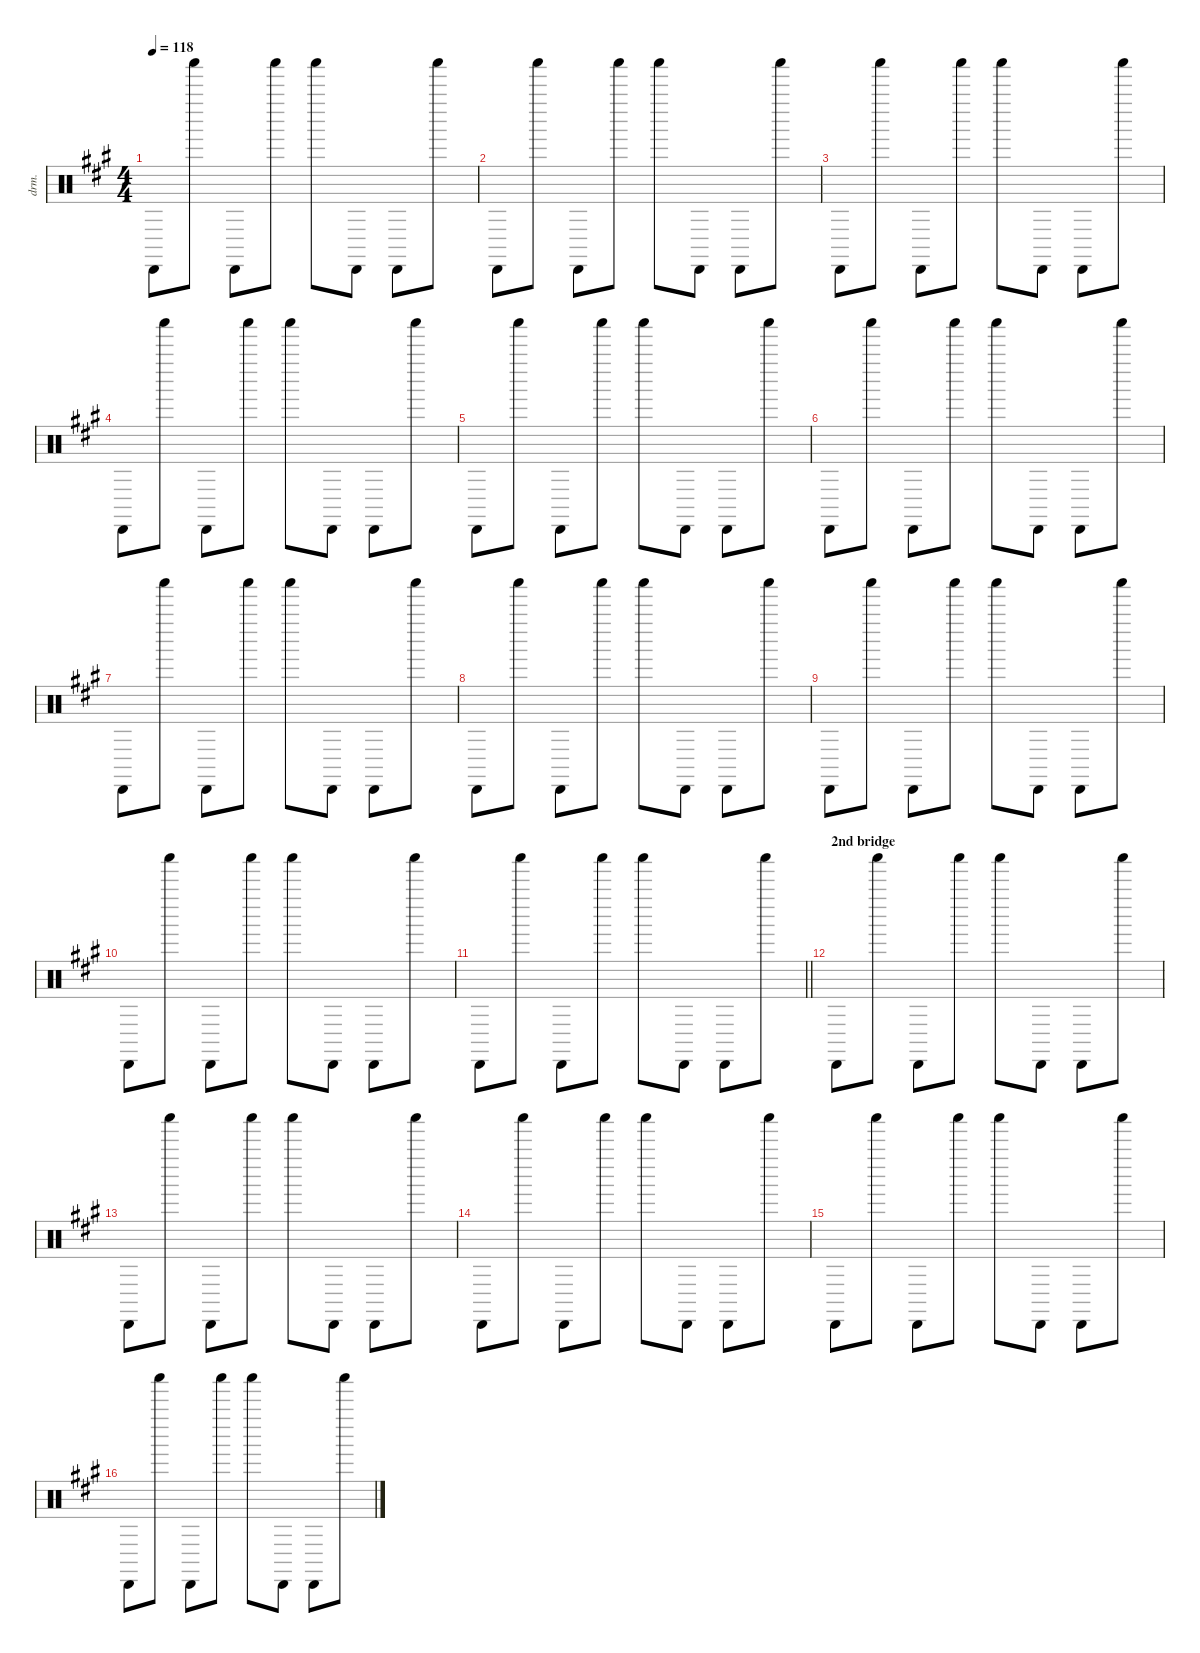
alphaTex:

\defaultSystemsLayout 4
\hideDynamics
\bracketExtendMode nobrackets
\otherSystemsTrackNameOrientation horizontal
\track ("shaker" "drm.") {instrument percussion}
\staff {score}
\articulation defaults
\ts (4 4)
\tempo 118
\clef neutral
\ks f#minor "Cabasa (hit)"{acc forcenatural}.8{dy f} "Shaker (hit)"{acc forcenatural}.8 "Cabasa (hit)"{acc forcenatural}.8{dy mp} "Shaker (hit)"{acc forcenatural}.8{dy f} "Shaker (hit)"{acc forcenatural}.8{dy p} "Cabasa (hit)"{acc forcenatural}.8{dy f} "Cabasa (hit)"{acc forcenatural}.8 "Shaker (hit)"{acc forcenatural}.8
|
"Cabasa (hit)"{acc forcenatural}.8 "Shaker (hit)"{acc forcenatural}.8 "Cabasa (hit)"{acc forcenatural}.8{dy mp} "Shaker (hit)"{acc forcenatural}.8{dy f} "Shaker (hit)"{acc forcenatural}.8{dy p} "Cabasa (hit)"{acc forcenatural}.8{dy f} "Cabasa (hit)"{acc forcenatural}.8 "Shaker (hit)"{acc forcenatural}.8 |
"Cabasa (hit)"{acc forcenatural}.8 "Shaker (hit)"{acc forcenatural}.8 "Cabasa (hit)"{acc forcenatural}.8{dy mp} "Shaker (hit)"{acc forcenatural}.8{dy f} "Shaker (hit)"{acc forcenatural}.8{dy p} "Cabasa (hit)"{acc forcenatural}.8{dy f} "Cabasa (hit)"{acc forcenatural}.8 "Shaker (hit)"{acc forcenatural}.8 |
"Cabasa (hit)"{acc forcenatural}.8 "Shaker (hit)"{acc forcenatural}.8 "Cabasa (hit)"{acc forcenatural}.8{dy mp} "Shaker (hit)"{acc forcenatural}.8{dy f} "Shaker (hit)"{acc forcenatural}.8{dy p} "Cabasa (hit)"{acc forcenatural}.8{dy f} "Cabasa (hit)"{acc forcenatural}.8 "Shaker (hit)"{acc forcenatural}.8 |
"Cabasa (hit)"{acc forcenatural}.8 "Shaker (hit)"{acc forcenatural}.8 "Cabasa (hit)"{acc forcenatural}.8{dy mp} "Shaker (hit)"{acc forcenatural}.8{dy f} "Shaker (hit)"{acc forcenatural}.8{dy p} "Cabasa (hit)"{acc forcenatural}.8{dy f} "Cabasa (hit)"{acc forcenatural}.8 "Shaker (hit)"{acc forcenatural}.8 |
"Cabasa (hit)"{acc forcenatural}.8 "Shaker (hit)"{acc forcenatural}.8 "Cabasa (hit)"{acc forcenatural}.8{dy mp} "Shaker (hit)"{acc forcenatural}.8{dy f} "Shaker (hit)"{acc forcenatural}.8{dy p} "Cabasa (hit)"{acc forcenatural}.8{dy f} "Cabasa (hit)"{acc forcenatural}.8 "Shaker (hit)"{acc forcenatural}.8 |
"Cabasa (hit)"{acc forcenatural}.8 "Shaker (hit)"{acc forcenatural}.8 "Cabasa (hit)"{acc forcenatural}.8{dy mp} "Shaker (hit)"{acc forcenatural}.8{dy f} "Shaker (hit)"{acc forcenatural}.8{dy p} "Cabasa (hit)"{acc forcenatural}.8{dy f} "Cabasa (hit)"{acc forcenatural}.8 "Shaker (hit)"{acc forcenatural}.8 |
"Cabasa (hit)"{acc forcenatural}.8 "Shaker (hit)"{acc forcenatural}.8 "Cabasa (hit)"{acc forcenatural}.8{dy mp} "Shaker (hit)"{acc forcenatural}.8{dy f} "Shaker (hit)"{acc forcenatural}.8{dy p} "Cabasa (hit)"{acc forcenatural}.8{dy f} "Cabasa (hit)"{acc forcenatural}.8 "Shaker (hit)"{acc forcenatural}.8 |
"Cabasa (hit)"{acc forcenatural}.8 "Shaker (hit)"{acc forcenatural}.8 "Cabasa (hit)"{acc forcenatural}.8{dy mp} "Shaker (hit)"{acc forcenatural}.8{dy f} "Shaker (hit)"{acc forcenatural}.8{dy p} "Cabasa (hit)"{acc forcenatural}.8{dy f} "Cabasa (hit)"{acc forcenatural}.8 "Shaker (hit)"{acc forcenatural}.8 |
"Cabasa (hit)"{acc forcenatural}.8 "Shaker (hit)"{acc forcenatural}.8 "Cabasa (hit)"{acc forcenatural}.8{dy mp} "Shaker (hit)"{acc forcenatural}.8{dy f} "Shaker (hit)"{acc forcenatural}.8{dy p} "Cabasa (hit)"{acc forcenatural}.8{dy f} "Cabasa (hit)"{acc forcenatural}.8 "Shaker (hit)"{acc forcenatural}.8 |
\barLineRight lightlight "Cabasa (hit)"{acc forcenatural}.8 "Shaker (hit)"{acc forcenatural}.8 "Cabasa (hit)"{acc forcenatural}.8{dy mp} "Shaker (hit)"{acc forcenatural}.8{dy f} "Shaker (hit)"{acc forcenatural}.8{dy p} "Cabasa (hit)"{acc forcenatural}.8{dy f} "Cabasa (hit)"{acc forcenatural}.8 "Shaker (hit)"{acc forcenatural}.8
|
\section ("" "2nd bridge")
"Cabasa (hit)"{acc forcenatural}.8 "Shaker (hit)"{acc forcenatural}.8 "Cabasa (hit)"{acc forcenatural}.8{dy mp} "Shaker (hit)"{acc forcenatural}.8{dy f} "Shaker (hit)"{acc forcenatural}.8{dy p} "Cabasa (hit)"{acc forcenatural}.8{dy f} "Cabasa (hit)"{acc forcenatural}.8 "Shaker (hit)"{acc forcenatural}.8 |
"Cabasa (hit)"{acc forcenatural}.8 "Shaker (hit)"{acc forcenatural}.8 "Cabasa (hit)"{acc forcenatural}.8{dy mp} "Shaker (hit)"{acc forcenatural}.8{dy f} "Shaker (hit)"{acc forcenatural}.8{dy p} "Cabasa (hit)"{acc forcenatural}.8{dy f} "Cabasa (hit)"{acc forcenatural}.8 "Shaker (hit)"{acc forcenatural}.8 |
"Cabasa (hit)"{acc forcenatural}.8 "Shaker (hit)"{acc forcenatural}.8 "Cabasa (hit)"{acc forcenatural}.8{dy mp} "Shaker (hit)"{acc forcenatural}.8{dy f} "Shaker (hit)"{acc forcenatural}.8{dy p} "Cabasa (hit)"{acc forcenatural}.8{dy f} "Cabasa (hit)"{acc forcenatural}.8 "Shaker (hit)"{acc forcenatural}.8 |
"Cabasa (hit)"{acc forcenatural}.8 "Shaker (hit)"{acc forcenatural}.8 "Cabasa (hit)"{acc forcenatural}.8{dy mp} "Shaker (hit)"{acc forcenatural}.8{dy f} "Shaker (hit)"{acc forcenatural}.8{dy p} "Cabasa (hit)"{acc forcenatural}.8{dy f} "Cabasa (hit)"{acc forcenatural}.8 "Shaker (hit)"{acc forcenatural}.8 |
"Cabasa (hit)"{acc forcenatural}.8 "Shaker (hit)"{acc forcenatural}.8 "Cabasa (hit)"{acc forcenatural}.8{dy mp} "Shaker (hit)"{acc forcenatural}.8{dy f} "Shaker (hit)"{acc forcenatural}.8{dy p} "Cabasa (hit)"{acc forcenatural}.8{dy f} "Cabasa (hit)"{acc forcenatural}.8 "Shaker (hit)"{acc forcenatural}.8
